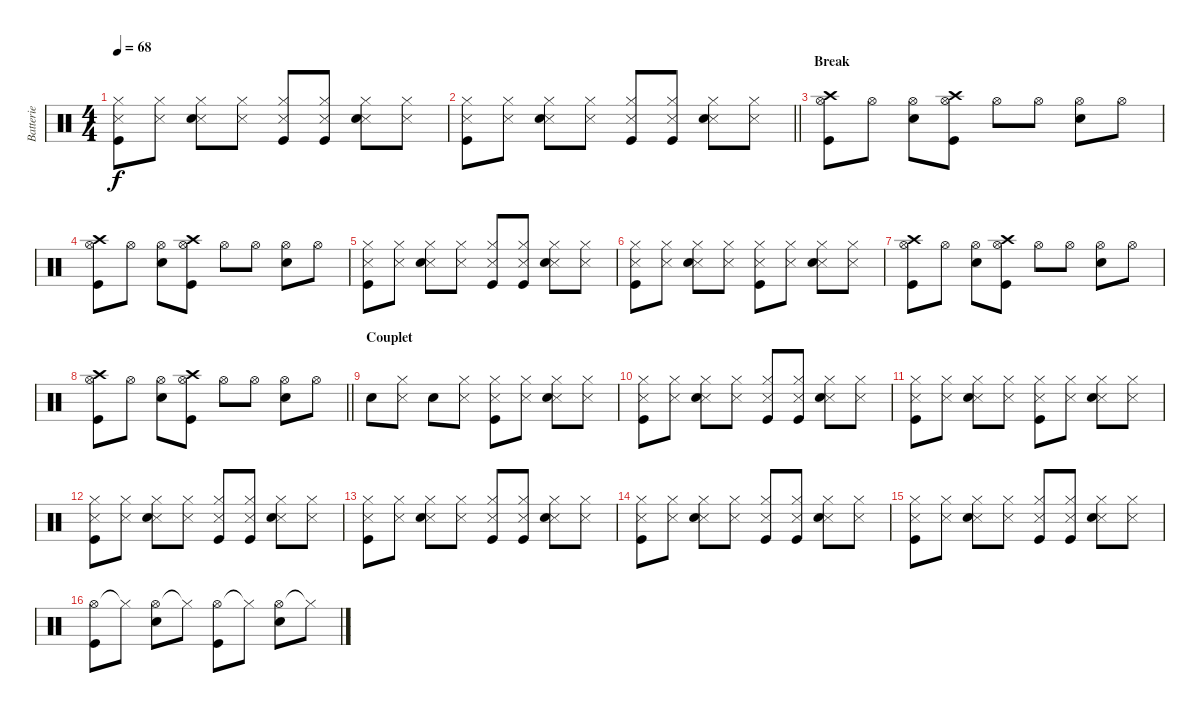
\track ("Batterie" "Batterie") {instrument percussion}
\staff {score}
\articulation defaults
\ts (4 4)
\tempo 68
\clef neutral
\ks c
("Snare (side stick) 3" "Hi-Hat (closed)" "Kick (hit)").8{dy f} ("Snare (side stick) 3" "Hi-Hat (closed)").8 ("Snare (side stick) 3" "Hi-Hat (closed)" "Snare (hit) 2").8 ("Snare (side stick) 3" "Hi-Hat (closed)").8 ("Snare (side stick) 3" "Hi-Hat (closed)" "Kick (hit)").8 ("Snare (side stick) 3" "Hi-Hat (closed)" "Kick (hit)").8 ("Snare (side stick) 3" "Hi-Hat (closed)" "Snare (hit) 2").8 ("Snare (side stick) 3" "Hi-Hat (closed)").8 |
\barLineRight lightlight
("Snare (side stick) 3" "Hi-Hat (closed)" "Kick (hit)").8 ("Snare (side stick) 3" "Hi-Hat (closed)").8 ("Snare (side stick) 3" "Hi-Hat (closed)" "Snare (hit) 2").8 ("Snare (side stick) 3" "Hi-Hat (closed)").8 ("Snare (side stick) 3" "Hi-Hat (closed)" "Kick (hit)").8 ("Snare (side stick) 3" "Hi-Hat (closed)" "Kick (hit)").8 ("Snare (side stick) 3" "Hi-Hat (closed)" "Snare (hit) 2").8 ("Snare (side stick) 3" "Hi-Hat (closed)").8 |
\section ("" "Break")
("Hi-Hat (open)" "Crash high (hit)" "Kick (hit)").8 "Hi-Hat (open)".8 ("Hi-Hat (open)" "Snare (hit) 2").8 ("Hi-Hat (open)" "Crash high (hit)" "Kick (hit)").8 "Hi-Hat (open)".8 "Hi-Hat (open)".8 ("Hi-Hat (open)" "Snare (hit) 2").8 "Hi-Hat (open)".8 |
("Hi-Hat (open)" "Crash high (hit)" "Kick (hit)").8 "Hi-Hat (open)".8 ("Hi-Hat (open)" "Snare (hit) 2").8 ("Hi-Hat (open)" "Crash high (hit)" "Kick (hit)").8 "Hi-Hat (open)".8 "Hi-Hat (open)".8 ("Hi-Hat (open)" "Snare (hit) 2").8 "Hi-Hat (open)".8 |
("Snare (side stick) 3" "Hi-Hat (closed)" "Kick (hit)").8 ("Snare (side stick) 3" "Hi-Hat (closed)").8 ("Snare (side stick) 3" "Hi-Hat (closed)" "Snare (hit) 2").8 ("Snare (side stick) 3" "Hi-Hat (closed)").8 ("Snare (side stick) 3" "Hi-Hat (closed)" "Kick (hit)").8 ("Snare (side stick) 3" "Hi-Hat (closed)" "Kick (hit)").8 ("Snare (side stick) 3" "Hi-Hat (closed)" "Snare (hit) 2").8 ("Snare (side stick) 3" "Hi-Hat (closed)").8 |
("Snare (side stick) 3" "Hi-Hat (closed)" "Kick (hit)").8 ("Snare (side stick) 3" "Hi-Hat (closed)").8 ("Snare (side stick) 3" "Hi-Hat (closed)" "Snare (hit) 2").8 ("Snare (side stick) 3" "Hi-Hat (closed)").8 ("Snare (side stick) 3" "Hi-Hat (closed)" "Kick (hit)").8 ("Snare (side stick) 3" "Hi-Hat (closed)").8 ("Snare (side stick) 3" "Hi-Hat (closed)" "Snare (hit) 2").8 ("Snare (side stick) 3" "Hi-Hat (closed)").8 |
("Hi-Hat (open)" "Crash high (hit)" "Kick (hit)").8 "Hi-Hat (open)".8 ("Hi-Hat (open)" "Snare (hit) 2").8 ("Hi-Hat (open)" "Crash high (hit)" "Kick (hit)").8 "Hi-Hat (open)".8 "Hi-Hat (open)".8 ("Hi-Hat (open)" "Snare (hit) 2").8 "Hi-Hat (open)".8 |
\barLineRight lightlight
("Hi-Hat (open)" "Crash high (hit)" "Kick (hit)").8 "Hi-Hat (open)".8 ("Hi-Hat (open)" "Snare (hit) 2").8 ("Hi-Hat (open)" "Crash high (hit)" "Kick (hit)").8 "Hi-Hat (open)".8 "Hi-Hat (open)".8 ("Hi-Hat (open)" "Snare (hit) 2").8 "Hi-Hat (open)".8 |
\section ("" "Couplet")
"Snare (hit) 2".8 ("Snare (side stick) 3" "Hi-Hat (closed)").8 "Snare (hit) 2".8 ("Snare (side stick) 3" "Hi-Hat (closed)").8 ("Snare (side stick) 3" "Hi-Hat (closed)" "Kick (hit)").8 ("Snare (side stick) 3" "Hi-Hat (closed)").8 ("Snare (side stick) 3" "Hi-Hat (closed)" "Snare (hit) 2").8 ("Snare (side stick) 3" "Hi-Hat (closed)").8 |
("Snare (side stick) 3" "Hi-Hat (closed)" "Kick (hit)").8 ("Snare (side stick) 3" "Hi-Hat (closed)").8 ("Snare (side stick) 3" "Hi-Hat (closed)" "Snare (hit) 2").8 ("Snare (side stick) 3" "Hi-Hat (closed)").8 ("Snare (side stick) 3" "Hi-Hat (closed)" "Kick (hit)").8 ("Snare (side stick) 3" "Hi-Hat (closed)" "Kick (hit)").8 ("Snare (side stick) 3" "Hi-Hat (closed)" "Snare (hit) 2").8 ("Snare (side stick) 3" "Hi-Hat (closed)").8 |
("Snare (side stick) 3" "Hi-Hat (closed)" "Kick (hit)").8 ("Snare (side stick) 3" "Hi-Hat (closed)").8 ("Snare (side stick) 3" "Hi-Hat (closed)" "Snare (hit) 2").8 ("Snare (side stick) 3" "Hi-Hat (closed)").8 ("Snare (side stick) 3" "Hi-Hat (closed)" "Kick (hit)").8 ("Snare (side stick) 3" "Hi-Hat (closed)").8 ("Snare (side stick) 3" "Hi-Hat (closed)" "Snare (hit) 2").8 ("Snare (side stick) 3" "Hi-Hat (closed)").8 |
("Snare (side stick) 3" "Hi-Hat (closed)" "Kick (hit)").8 ("Snare (side stick) 3" "Hi-Hat (closed)").8 ("Snare (side stick) 3" "Hi-Hat (closed)" "Snare (hit) 2").8 ("Snare (side stick) 3" "Hi-Hat (closed)").8 ("Snare (side stick) 3" "Hi-Hat (closed)" "Kick (hit)").8 ("Snare (side stick) 3" "Hi-Hat (closed)" "Kick (hit)").8 ("Snare (side stick) 3" "Hi-Hat (closed)" "Snare (hit) 2").8 ("Snare (side stick) 3" "Hi-Hat (closed)").8 |
("Snare (side stick) 3" "Hi-Hat (closed)" "Kick (hit)").8 ("Snare (side stick) 3" "Hi-Hat (closed)").8 ("Snare (side stick) 3" "Hi-Hat (closed)" "Snare (hit) 2").8 ("Snare (side stick) 3" "Hi-Hat (closed)").8 ("Snare (side stick) 3" "Hi-Hat (closed)" "Kick (hit)").8 ("Snare (side stick) 3" "Hi-Hat (closed)" "Kick (hit)").8 ("Snare (side stick) 3" "Hi-Hat (closed)" "Snare (hit) 2").8 ("Snare (side stick) 3" "Hi-Hat (closed)").8 |
("Snare (side stick) 3" "Hi-Hat (closed)" "Kick (hit)").8 ("Snare (side stick) 3" "Hi-Hat (closed)").8 ("Snare (side stick) 3" "Hi-Hat (closed)" "Snare (hit) 2").8 ("Snare (side stick) 3" "Hi-Hat (closed)").8 ("Snare (side stick) 3" "Hi-Hat (closed)" "Kick (hit)").8 ("Snare (side stick) 3" "Hi-Hat (closed)" "Kick (hit)").8 ("Snare (side stick) 3" "Hi-Hat (closed)" "Snare (hit) 2").8 ("Snare (side stick) 3" "Hi-Hat (closed)").8 |
("Snare (side stick) 3" "Hi-Hat (closed)" "Kick (hit)").8 ("Snare (side stick) 3" "Hi-Hat (closed)").8 ("Snare (side stick) 3" "Hi-Hat (closed)" "Snare (hit) 2").8 ("Snare (side stick) 3" "Hi-Hat (closed)").8 ("Snare (side stick) 3" "Hi-Hat (closed)" "Kick (hit)").8 ("Snare (side stick) 3" "Hi-Hat (closed)" "Kick (hit)").8 ("Snare (side stick) 3" "Hi-Hat (closed)" "Snare (hit) 2").8 ("Snare (side stick) 3" "Hi-Hat (closed)").8 |
("Hi-Hat (open)" "Kick (hit)").8 "Hi-Hat (closed)"{t}.8 ("Hi-Hat (open)" "Snare (hit) 2").8 "Hi-Hat (closed)"{t}.8 ("Hi-Hat (open)" "Kick (hit)").8 "Hi-Hat (closed)"{t}.8 ("Hi-Hat (open)" "Snare (hit) 2").8 "Hi-Hat (closed)"{t}.8
